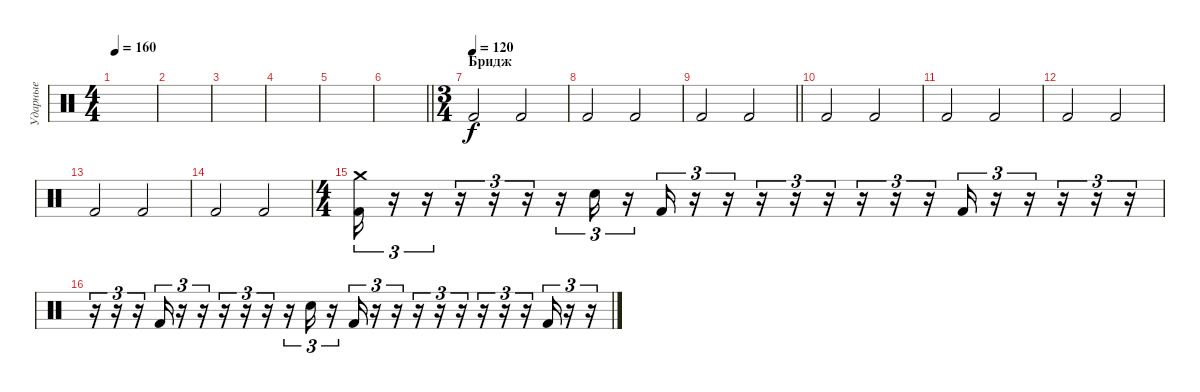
\track ("Ударные" "Ударные") {instrument percussion}
\staff {score}
\articulation defaults
\ts (4 4)
\tempo 160
\clef neutral
\ks c
|
|
|
|
|
\barLineRight lightlight
|
\ts (3 4)
\section ("" "Бридж")
\tempo (120)
"Kick (hit) 2".2 "Kick (hit) 2".2 |
"Kick (hit) 2".2 "Kick (hit) 2".2 |
\barLineRight lightlight "Kick (hit) 2".2 "Kick (hit) 2".2
|
\section ("" "")
"Kick (hit) 2".2 "Kick (hit) 2".2 |
"Kick (hit) 2".2 "Kick (hit) 2".2 |
"Kick (hit) 2".2 "Kick (hit) 2".2 |
"Kick (hit) 2".2 "Kick (hit) 2".2 |
"Kick (hit) 2".2 "Kick (hit) 2".2 |
\ts (4 4)
("Crash medium (hit)" "Kick (hit) 2").16{tu (3 2)} r.16{tu (3 2)} r.16{tu (3 2)} r.16{tu (3 2)} r.16{tu (3 2)} r.16{tu (3 2)} r.16{tu (3 2)} "Snare (hit) 2".16{tu (3 2)} r.16{tu (3 2)} "Kick (hit) 2".16{tu (3 2)} r.16{tu (3 2)} r.16{tu (3 2)} r.16{tu (3 2)} r.16{tu (3 2)} r.16{tu (3 2)} r.16{tu (3 2)} r.16{tu (3 2)} r.16{tu (3 2)} "Kick (hit) 2".16{tu (3 2)} r.16{tu (3 2)} r.16{tu (3 2)} r.16{tu (3 2)} r.16{tu (3 2)} r.16{tu (3 2)} |
r.16{tu (3 2)} r.16{tu (3 2)} r.16{tu (3 2)} "Kick (hit) 2".16{tu (3 2)} r.16{tu (3 2)} r.16{tu (3 2)} r.16{tu (3 2)} r.16{tu (3 2)} r.16{tu (3 2)} r.16{tu (3 2)} "Snare (hit) 2".16{tu (3 2)} r.16{tu (3 2)} "Kick (hit) 2".16{tu (3 2)} r.16{tu (3 2)} r.16{tu (3 2)} r.16{tu (3 2)} r.16{tu (3 2)} r.16{tu (3 2)} r.16{tu (3 2)} r.16{tu (3 2)} r.16{tu (3 2)} "Kick (hit) 2".16{tu (3 2)} r.16{tu (3 2)} r.16{tu (3 2)}
